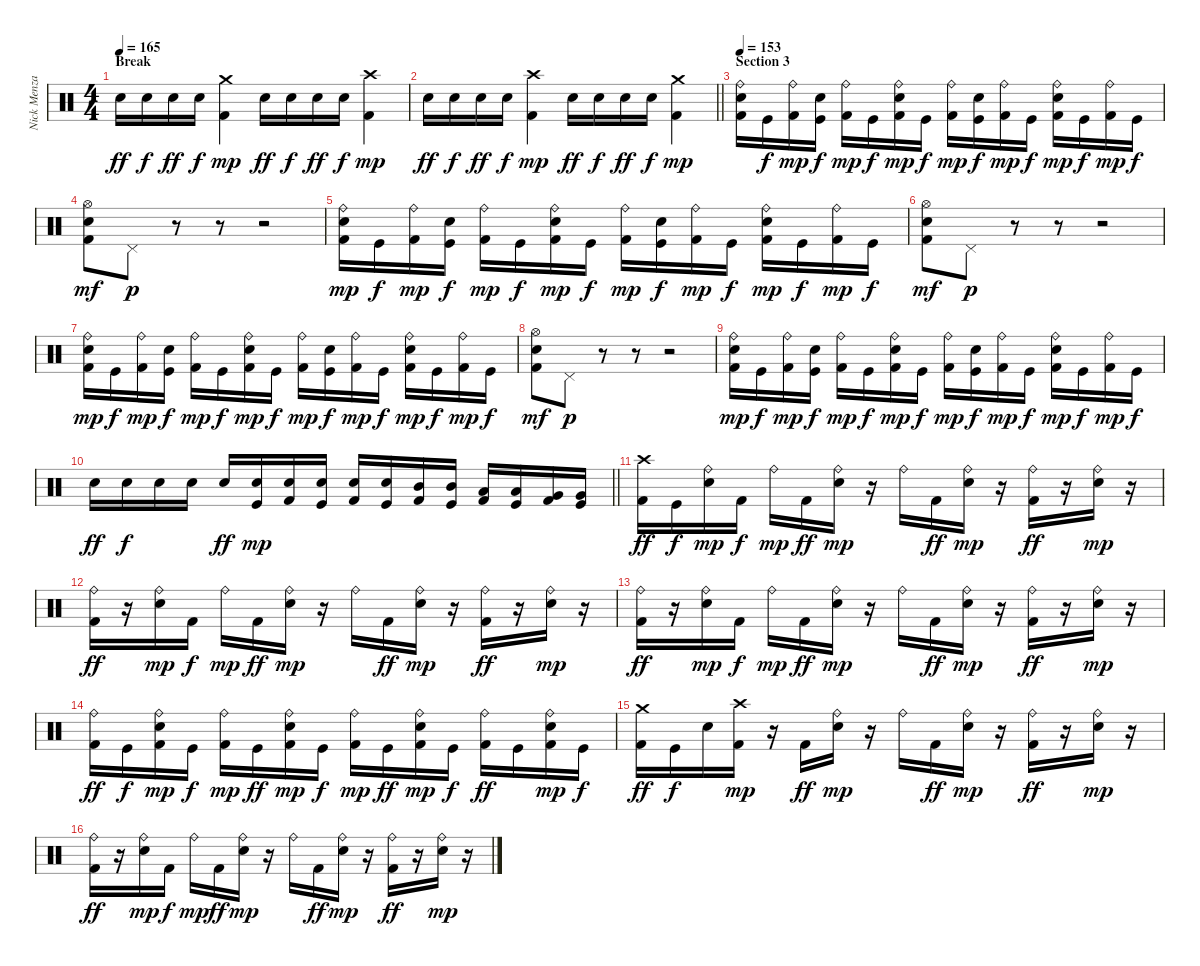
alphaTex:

\track ("Nick Menza" "Nick Menza") {instrument percussion}
\staff {score}
\articulation defaults
\ts (4 4)
\section ("" "Break")
\tempo 165
\clef neutral
\ks c "Electric Snare (hit)".16{dy ff} "Electric Snare (hit)".16{dy f} "Electric Snare (hit)".16{dy ff} "Electric Snare (hit)".16{dy f}
("Crash medium (hit)" "Kick (hit) 2").4{dy mp} "Electric Snare (hit)".16{dy ff} "Electric Snare (hit)".16{dy f} "Electric Snare (hit)".16{dy ff} "Electric Snare (hit)".16{dy f} ("Crash high (hit)" "Kick (hit) 2").4{dy mp} |
\barLineRight lightlight "Electric Snare (hit)".16{dy ff} "Electric Snare (hit)".16{dy f} "Electric Snare (hit)".16{dy ff} "Electric Snare (hit)".16{dy f}
("Crash high (hit)" "Kick (hit) 2").4{dy mp} "Electric Snare (hit)".16{dy ff} "Electric Snare (hit)".16{dy f} "Electric Snare (hit)".16{dy ff} "Electric Snare (hit)".16{dy f} ("Crash medium (hit)" "Kick (hit) 2").4{dy mp} |
\section ("" "Section 3")
\tempo 153
("Ride (bell)" "Electric Snare (hit)" "Kick (hit) 2").16 "Kick (hit)".16{dy f} ("Ride (bell)" "Kick (hit) 2").16{dy mp} ("Electric Snare (hit)" "Kick (hit)").16{dy f} ("Ride (bell)" "Kick (hit) 2").16{dy mp} "Kick (hit)".16{dy f} ("Ride (bell)" "Electric Snare (hit)" "Kick (hit) 2").16{dy mp} "Kick (hit)".16{dy f} ("Ride (bell)" "Kick (hit) 2").16{dy mp} ("Electric Snare (hit)" "Kick (hit)").16{dy f} ("Ride (bell)" "Kick (hit) 2").16{dy mp} "Kick (hit)".16{dy f} ("Ride (bell)" "Electric Snare (hit)" "Kick (hit) 2").16{dy mp} "Kick (hit)".16{dy f} ("Ride (bell)" "Kick (hit) 2").16{dy mp} "Kick (hit)".16{dy f} |
("Hi-Hat (open)" "Electric Snare (hit)" "Kick (hit) 2").8{dy mf} "Pedal Hi-Hat (hit)".8{dy p} r.8 r.8 r.2 |
("Ride (bell)" "Electric Snare (hit)" "Kick (hit) 2").16{dy mp} "Kick (hit)".16{dy f} ("Ride (bell)" "Kick (hit) 2").16{dy mp} ("Electric Snare (hit)" "Kick (hit)").16{dy f} ("Ride (bell)" "Kick (hit) 2").16{dy mp} "Kick (hit)".16{dy f} ("Ride (bell)" "Electric Snare (hit)" "Kick (hit) 2").16{dy mp} "Kick (hit)".16{dy f} ("Ride (bell)" "Kick (hit) 2").16{dy mp} ("Electric Snare (hit)" "Kick (hit)").16{dy f} ("Ride (bell)" "Kick (hit) 2").16{dy mp} "Kick (hit)".16{dy f} ("Ride (bell)" "Electric Snare (hit)" "Kick (hit) 2").16{dy mp} "Kick (hit)".16{dy f} ("Ride (bell)" "Kick (hit) 2").16{dy mp} "Kick (hit)".16{dy f} |
("Hi-Hat (open)" "Electric Snare (hit)" "Kick (hit) 2").8{dy mf} "Pedal Hi-Hat (hit)".8{dy p} r.8 r.8 r.2 |
("Ride (bell)" "Electric Snare (hit)" "Kick (hit) 2").16{dy mp} "Kick (hit)".16{dy f} ("Ride (bell)" "Kick (hit) 2").16{dy mp} ("Electric Snare (hit)" "Kick (hit)").16{dy f} ("Ride (bell)" "Kick (hit) 2").16{dy mp} "Kick (hit)".16{dy f} ("Ride (bell)" "Electric Snare (hit)" "Kick (hit) 2").16{dy mp} "Kick (hit)".16{dy f} ("Ride (bell)" "Kick (hit) 2").16{dy mp} ("Electric Snare (hit)" "Kick (hit)").16{dy f} ("Ride (bell)" "Kick (hit) 2").16{dy mp} "Kick (hit)".16{dy f} ("Ride (bell)" "Electric Snare (hit)" "Kick (hit) 2").16{dy mp} "Kick (hit)".16{dy f} ("Ride (bell)" "Kick (hit) 2").16{dy mp} "Kick (hit)".16{dy f} |
("Hi-Hat (open)" "Electric Snare (hit)" "Kick (hit) 2").8{dy mf} "Pedal Hi-Hat (hit)".8{dy p} r.8 r.8 r.2 |
("Ride (bell)" "Electric Snare (hit)" "Kick (hit) 2").16{dy mp} "Kick (hit)".16{dy f} ("Ride (bell)" "Kick (hit) 2").16{dy mp} ("Electric Snare (hit)" "Kick (hit)").16{dy f} ("Ride (bell)" "Kick (hit) 2").16{dy mp} "Kick (hit)".16{dy f} ("Ride (bell)" "Electric Snare (hit)" "Kick (hit) 2").16{dy mp} "Kick (hit)".16{dy f} ("Ride (bell)" "Kick (hit) 2").16{dy mp} ("Electric Snare (hit)" "Kick (hit)").16{dy f} ("Ride (bell)" "Kick (hit) 2").16{dy mp} "Kick (hit)".16{dy f} ("Ride (bell)" "Electric Snare (hit)" "Kick (hit) 2").16{dy mp} "Kick (hit)".16{dy f} ("Ride (bell)" "Kick (hit) 2").16{dy mp} "Kick (hit)".16{dy f} |
\barLineRight lightlight "Electric Snare (hit)".16{dy ff} "Electric Snare (hit)".16{dy f} "Electric Snare (hit)".16 "Electric Snare (hit)".16 "Electric Snare (hit)".16{dy ff}
("Electric Snare (hit)" "Kick (hit)").16{dy mp} ("Electric Snare (hit)" "Kick (hit) 2").16 ("Electric Snare (hit)" "Kick (hit)").16 ("Electric Snare (hit)" "Kick (hit) 2").16 ("Electric Snare (hit)" "Kick (hit)").16 ("Mid Tom (hit)" "Kick (hit) 2").16 ("Mid Tom (hit)" "Kick (hit)").16 ("Low Tom (hit)" "Kick (hit) 2").16 ("Low Tom (hit)" "Kick (hit)").16 ("Very Low Tom (hit)" "Kick (hit) 2").16 ("Very Low Tom (hit)" "Kick (hit)").16 |
\section ("" "")
("Crash high (hit)" "Kick (hit) 2").16{dy ff} "Kick (hit)".16{dy f} ("Ride (bell)" "Electric Snare (hit)").16{dy mp} "Kick (hit) 2".16{dy f} "Ride (bell)".16{dy mp} "Kick (hit) 2".16{dy ff} ("Ride (bell)" "Electric Snare (hit)").16{dy mp} r.16 "Ride (bell)".16 "Kick (hit) 2".16{dy ff} ("Ride (bell)" "Electric Snare (hit)").16{dy mp} r.16 ("Ride (bell)" "Kick (hit) 2").16{dy ff} r.16 ("Ride (bell)" "Electric Snare (hit)").16{dy mp} r.16 |
("Ride (bell)" "Kick (hit) 2").16{dy ff} r.16 ("Ride (bell)" "Electric Snare (hit)").16{dy mp} "Kick (hit) 2".16{dy f} "Ride (bell)".16{dy mp} "Kick (hit) 2".16{dy ff} ("Ride (bell)" "Electric Snare (hit)").16{dy mp} r.16 "Ride (bell)".16 "Kick (hit) 2".16{dy ff} ("Ride (bell)" "Electric Snare (hit)").16{dy mp} r.16 ("Ride (bell)" "Kick (hit) 2").16{dy ff} r.16 ("Ride (bell)" "Electric Snare (hit)").16{dy mp} r.16 |
("Ride (bell)" "Kick (hit) 2").16{dy ff} r.16 ("Ride (bell)" "Electric Snare (hit)").16{dy mp} "Kick (hit) 2".16{dy f} "Ride (bell)".16{dy mp} "Kick (hit) 2".16{dy ff} ("Ride (bell)" "Electric Snare (hit)").16{dy mp} r.16 "Ride (bell)".16 "Kick (hit) 2".16{dy ff} ("Ride (bell)" "Electric Snare (hit)").16{dy mp} r.16 ("Ride (bell)" "Kick (hit) 2").16{dy ff} r.16 ("Ride (bell)" "Electric Snare (hit)").16{dy mp} r.16 |
("Ride (bell)" "Kick (hit) 2").16{dy ff} "Kick (hit)".16{dy f} ("Ride (bell)" "Electric Snare (hit)" "Kick (hit) 2").16{dy mp} "Kick (hit)".16{dy f} ("Ride (bell)" "Kick (hit) 2").16{dy mp} "Kick (hit)".16{dy ff} ("Ride (bell)" "Electric Snare (hit)" "Kick (hit) 2").16{dy mp} "Kick (hit)".16{dy f} ("Ride (bell)" "Kick (hit) 2").16{dy mp} "Kick (hit)".16{dy ff} ("Ride (bell)" "Electric Snare (hit)" "Kick (hit) 2").16{dy mp} "Kick (hit)".16{dy f} ("Ride (bell)" "Kick (hit) 2").16{dy ff} "Kick (hit)".16 ("Ride (bell)" "Electric Snare (hit)" "Kick (hit) 2").16{dy mp} "Kick (hit)".16{dy f} |
("Crash medium (hit)" "Kick (hit) 2").16{dy ff} "Kick (hit)".16{dy f} "Electric Snare (hit)".16 ("Crash high (hit)" "Kick (hit) 2").16{dy mp} r.16 "Kick (hit) 2".16{dy ff} ("Ride (bell)" "Electric Snare (hit)").16{dy mp} r.16 "Ride (bell)".16 "Kick (hit) 2".16{dy ff} ("Ride (bell)" "Electric Snare (hit)").16{dy mp} r.16 ("Ride (bell)" "Kick (hit) 2").16{dy ff} r.16 ("Ride (bell)" "Electric Snare (hit)").16{dy mp} r.16 |
("Ride (bell)" "Kick (hit) 2").16{dy ff} r.16 ("Ride (bell)" "Electric Snare (hit)").16{dy mp} "Kick (hit) 2".16{dy f} "Ride (bell)".16{dy mp} "Kick (hit) 2".16{dy ff} ("Ride (bell)" "Electric Snare (hit)").16{dy mp} r.16 "Ride (bell)".16 "Kick (hit) 2".16{dy ff} ("Ride (bell)" "Electric Snare (hit)").16{dy mp} r.16 ("Ride (bell)" "Kick (hit) 2").16{dy ff} r.16 ("Ride (bell)" "Electric Snare (hit)").16{dy mp} r.16
